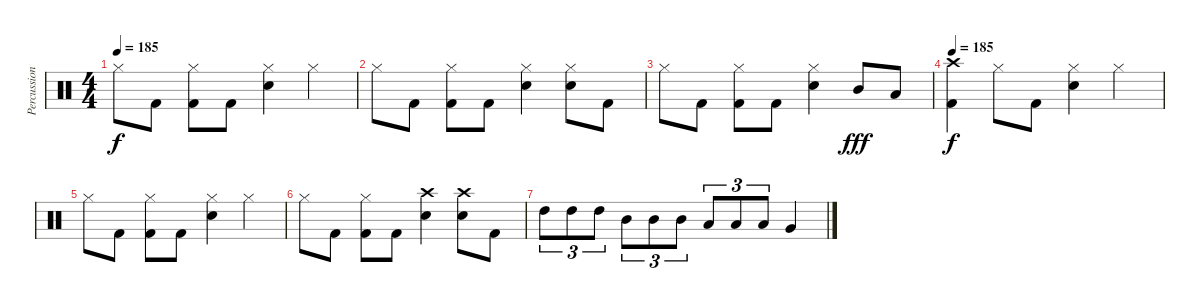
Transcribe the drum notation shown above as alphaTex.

\track ("Percussion" "Percussion") {solo instrument percussion}
\staff {score}
\articulation defaults
\ts (4 4)
\tempo 185
\clef neutral
\ks c "Hi-Hat (closed)".8{dy f} "Kick (hit) 2".8
("Hi-Hat (closed)" "Kick (hit) 2").8 "Kick (hit) 2".8 ("Hi-Hat (closed)" "Snare (hit) 2").4 "Hi-Hat (closed)".4 |
"Hi-Hat (closed)".8 "Kick (hit) 2".8 ("Hi-Hat (closed)" "Kick (hit) 2").8 "Kick (hit) 2".8 ("Hi-Hat (closed)" "Snare (hit) 2").4 ("Hi-Hat (closed)" "Snare (hit) 2").8 "Kick (hit) 2".8 |
"Hi-Hat (closed)".8 "Kick (hit) 2".8 ("Hi-Hat (closed)" "Kick (hit) 2").8 "Kick (hit) 2".8 ("Hi-Hat (closed)" "Snare (hit) 2").4 "Mid Tom (hit)".8{dy fff} "Low Tom (hit)".8 |
\tempo 185
("Crash high (hit)" "Kick (hit) 2").4{dy f} "Hi-Hat (closed)".8 "Kick (hit) 2".8 ("Hi-Hat (closed)" "Snare (hit) 2").4 "Hi-Hat (closed)".4 |
"Hi-Hat (closed)".8 "Kick (hit) 2".8 ("Hi-Hat (closed)" "Kick (hit) 2").8 "Kick (hit) 2".8 ("Hi-Hat (closed)" "Snare (hit) 2").4 "Hi-Hat (closed)".4 |
"Hi-Hat (closed)".8 "Kick (hit) 2".8 ("Hi-Hat (closed)" "Kick (hit) 2").8 "Kick (hit) 2".8 ("Crash high (hit)" "Snare (hit) 2").4 ("Crash high (hit)" "Snare (hit) 2").8 "Kick (hit) 2".8 |
"High Tom (hit)".8{tu (3 2)} "High Tom (hit)".8{tu (3 2)} "High Tom (hit)".8{tu (3 2)} "Mid Tom (hit)".8{tu (3 2)} "Mid Tom (hit)".8{tu (3 2)} "Mid Tom (hit)".8{tu (3 2)} "Low Tom (hit)".8{tu (3 2)} "Low Tom (hit)".8{tu (3 2)} "Low Tom (hit)".8{tu (3 2)} "Very Low Tom (hit)".4
